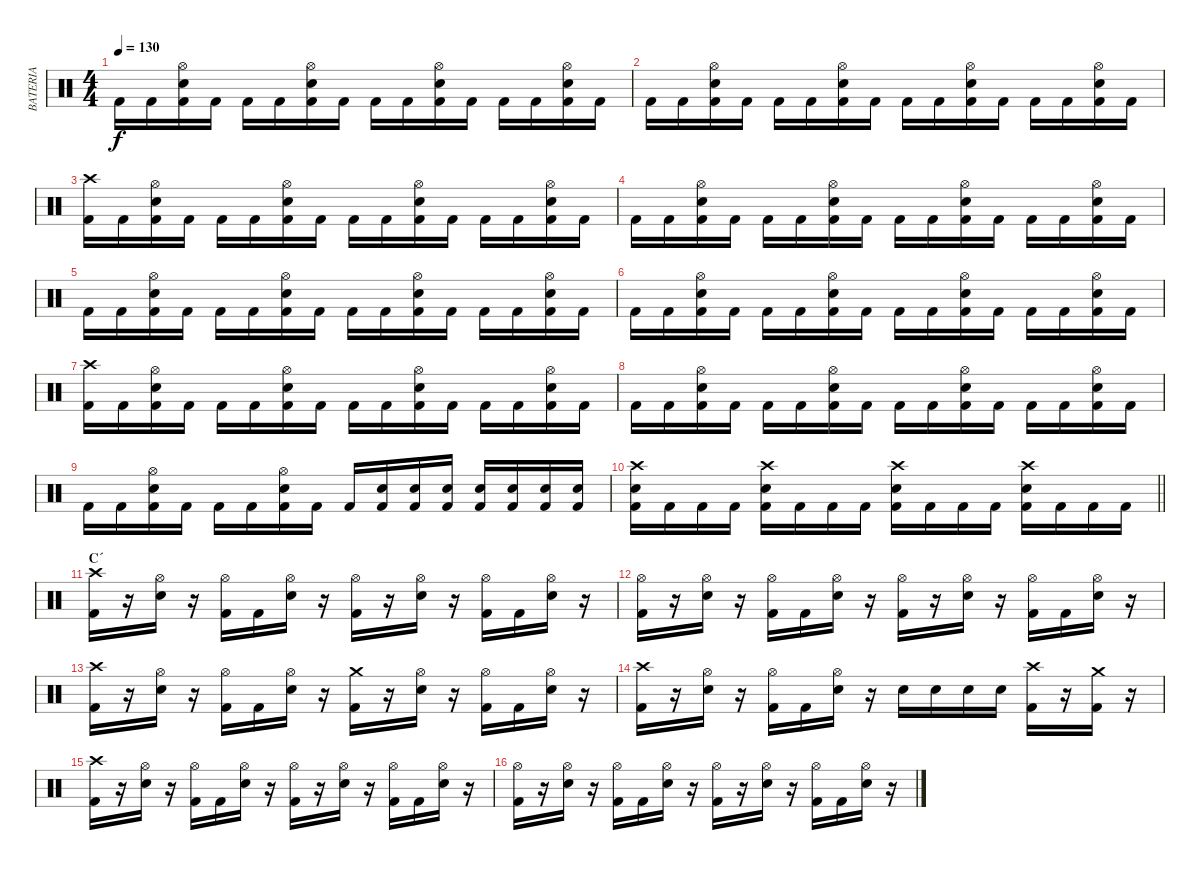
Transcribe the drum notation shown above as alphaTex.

\track ("BATERIA" "BATERIA") {instrument percussion}
\staff {score}
\articulation defaults
\ts (4 4)
\tempo 130
\clef neutral
\ks c "Kick (hit) 2".16{dy f} "Kick (hit) 2".16
("Kick (hit) 2" "Electric Snare (hit)" "Hi-Hat (open)").16 "Kick (hit) 2".16 "Kick (hit) 2".16 "Kick (hit) 2".16 ("Kick (hit) 2" "Electric Snare (hit)" "Hi-Hat (open)").16 "Kick (hit) 2".16 "Kick (hit) 2".16 "Kick (hit) 2".16 ("Kick (hit) 2" "Electric Snare (hit)" "Hi-Hat (open)").16 "Kick (hit) 2".16 "Kick (hit) 2".16 "Kick (hit) 2".16 ("Kick (hit) 2" "Electric Snare (hit)" "Hi-Hat (open)").16 "Kick (hit) 2".16 |
"Kick (hit) 2".16 "Kick (hit) 2".16 ("Kick (hit) 2" "Electric Snare (hit)" "Hi-Hat (open)").16 "Kick (hit) 2".16 "Kick (hit) 2".16 "Kick (hit) 2".16 ("Kick (hit) 2" "Electric Snare (hit)" "Hi-Hat (open)").16 "Kick (hit) 2".16 "Kick (hit) 2".16 "Kick (hit) 2".16 ("Kick (hit) 2" "Electric Snare (hit)" "Hi-Hat (open)").16 "Kick (hit) 2".16 "Kick (hit) 2".16 "Kick (hit) 2".16 ("Kick (hit) 2" "Electric Snare (hit)" "Hi-Hat (open)").16 "Kick (hit) 2".16 |
("Kick (hit) 2" "Crash high (hit)").16 "Kick (hit) 2".16 ("Kick (hit) 2" "Electric Snare (hit)" "Hi-Hat (open)").16 "Kick (hit) 2".16 "Kick (hit) 2".16 "Kick (hit) 2".16 ("Kick (hit) 2" "Electric Snare (hit)" "Hi-Hat (open)").16 "Kick (hit) 2".16 "Kick (hit) 2".16 "Kick (hit) 2".16 ("Kick (hit) 2" "Electric Snare (hit)" "Hi-Hat (open)").16 "Kick (hit) 2".16 "Kick (hit) 2".16 "Kick (hit) 2".16 ("Kick (hit) 2" "Electric Snare (hit)" "Hi-Hat (open)").16 "Kick (hit) 2".16 |
"Kick (hit) 2".16 "Kick (hit) 2".16 ("Kick (hit) 2" "Electric Snare (hit)" "Hi-Hat (open)").16 "Kick (hit) 2".16 "Kick (hit) 2".16 "Kick (hit) 2".16 ("Kick (hit) 2" "Electric Snare (hit)" "Hi-Hat (open)").16 "Kick (hit) 2".16 "Kick (hit) 2".16 "Kick (hit) 2".16 ("Kick (hit) 2" "Electric Snare (hit)" "Hi-Hat (open)").16 "Kick (hit) 2".16 "Kick (hit) 2".16 "Kick (hit) 2".16 ("Kick (hit) 2" "Electric Snare (hit)" "Hi-Hat (open)").16 "Kick (hit) 2".16 |
"Kick (hit) 2".16 "Kick (hit) 2".16 ("Kick (hit) 2" "Electric Snare (hit)" "Hi-Hat (open)").16 "Kick (hit) 2".16 "Kick (hit) 2".16 "Kick (hit) 2".16 ("Kick (hit) 2" "Electric Snare (hit)" "Hi-Hat (open)").16 "Kick (hit) 2".16 "Kick (hit) 2".16 "Kick (hit) 2".16 ("Kick (hit) 2" "Electric Snare (hit)" "Hi-Hat (open)").16 "Kick (hit) 2".16 "Kick (hit) 2".16 "Kick (hit) 2".16 ("Kick (hit) 2" "Electric Snare (hit)" "Hi-Hat (open)").16 "Kick (hit) 2".16 |
"Kick (hit) 2".16 "Kick (hit) 2".16 ("Kick (hit) 2" "Electric Snare (hit)" "Hi-Hat (open)").16 "Kick (hit) 2".16 "Kick (hit) 2".16 "Kick (hit) 2".16 ("Kick (hit) 2" "Electric Snare (hit)" "Hi-Hat (open)").16 "Kick (hit) 2".16 "Kick (hit) 2".16 "Kick (hit) 2".16 ("Kick (hit) 2" "Electric Snare (hit)" "Hi-Hat (open)").16 "Kick (hit) 2".16 "Kick (hit) 2".16 "Kick (hit) 2".16 ("Kick (hit) 2" "Electric Snare (hit)" "Hi-Hat (open)").16 "Kick (hit) 2".16 |
("Kick (hit) 2" "Crash high (hit)").16 "Kick (hit) 2".16 ("Kick (hit) 2" "Electric Snare (hit)" "Hi-Hat (open)").16 "Kick (hit) 2".16 "Kick (hit) 2".16 "Kick (hit) 2".16 ("Kick (hit) 2" "Electric Snare (hit)" "Hi-Hat (open)").16 "Kick (hit) 2".16 "Kick (hit) 2".16 "Kick (hit) 2".16 ("Kick (hit) 2" "Electric Snare (hit)" "Hi-Hat (open)").16 "Kick (hit) 2".16 "Kick (hit) 2".16 "Kick (hit) 2".16 ("Kick (hit) 2" "Electric Snare (hit)" "Hi-Hat (open)").16 "Kick (hit) 2".16 |
"Kick (hit) 2".16 "Kick (hit) 2".16 ("Kick (hit) 2" "Electric Snare (hit)" "Hi-Hat (open)").16 "Kick (hit) 2".16 "Kick (hit) 2".16 "Kick (hit) 2".16 ("Kick (hit) 2" "Electric Snare (hit)" "Hi-Hat (open)").16 "Kick (hit) 2".16 "Kick (hit) 2".16 "Kick (hit) 2".16 ("Kick (hit) 2" "Electric Snare (hit)" "Hi-Hat (open)").16 "Kick (hit) 2".16 "Kick (hit) 2".16 "Kick (hit) 2".16 ("Kick (hit) 2" "Electric Snare (hit)" "Hi-Hat (open)").16 "Kick (hit) 2".16 |
"Kick (hit) 2".16 "Kick (hit) 2".16 ("Kick (hit) 2" "Electric Snare (hit)" "Hi-Hat (open)").16 "Kick (hit) 2".16 "Kick (hit) 2".16 "Kick (hit) 2".16 ("Kick (hit) 2" "Electric Snare (hit)" "Hi-Hat (open)").16 "Kick (hit) 2".16 "Kick (hit) 2".16 ("Kick (hit) 2" "Electric Snare (hit)").16 ("Kick (hit) 2" "Electric Snare (hit)").16 ("Kick (hit) 2" "Electric Snare (hit)").16 ("Kick (hit) 2" "Electric Snare (hit)").16 ("Kick (hit) 2" "Electric Snare (hit)").16 ("Kick (hit) 2" "Electric Snare (hit)").16 ("Kick (hit) 2" "Electric Snare (hit)").16 |
\barLineRight lightlight
("Kick (hit) 2" "Electric Snare (hit)" "Crash high (hit)").16 "Kick (hit) 2".16 "Kick (hit) 2".16 "Kick (hit) 2".16 ("Kick (hit) 2" "Electric Snare (hit)" "Crash high (hit)").16 "Kick (hit) 2".16 "Kick (hit) 2".16 "Kick (hit) 2".16 ("Kick (hit) 2" "Electric Snare (hit)" "Crash high (hit)").16 "Kick (hit) 2".16 "Kick (hit) 2".16 "Kick (hit) 2".16 ("Kick (hit) 2" "Electric Snare (hit)" "Crash high (hit)").16 "Kick (hit) 2".16 "Kick (hit) 2".16 "Kick (hit) 2".16 |
\section ("" "C´")
("Kick (hit) 2" "Crash high (hit)").16 r.16 ("Electric Snare (hit)" "Hi-Hat (open)").16 r.16 ("Kick (hit) 2" "Hi-Hat (open)").16 "Kick (hit) 2".16 ("Electric Snare (hit)" "Hi-Hat (open)").16 r.16 ("Kick (hit) 2" "Hi-Hat (open)").16 r.16 ("Electric Snare (hit)" "Hi-Hat (open)").16 r.16 ("Kick (hit) 2" "Hi-Hat (open)").16 "Kick (hit) 2".16 ("Electric Snare (hit)" "Hi-Hat (open)").16 r.16 |
("Kick (hit) 2" "Hi-Hat (open)").16 r.16 ("Electric Snare (hit)" "Hi-Hat (open)").16 r.16 ("Kick (hit) 2" "Hi-Hat (open)").16 "Kick (hit) 2".16 ("Electric Snare (hit)" "Hi-Hat (open)").16 r.16 ("Kick (hit) 2" "Hi-Hat (open)").16 r.16 ("Electric Snare (hit)" "Hi-Hat (open)").16 r.16 ("Kick (hit) 2" "Hi-Hat (open)").16 "Kick (hit) 2".16 ("Electric Snare (hit)" "Hi-Hat (open)").16 r.16 |
("Kick (hit) 2" "Crash high (hit)").16 r.16 ("Electric Snare (hit)" "Hi-Hat (open)").16 r.16 ("Kick (hit) 2" "Hi-Hat (open)").16 "Kick (hit) 2".16 ("Electric Snare (hit)" "Hi-Hat (open)").16 r.16 ("Kick (hit) 2" "Crash medium (hit)").16 r.16 ("Electric Snare (hit)" "Hi-Hat (open)").16 r.16 ("Kick (hit) 2" "Hi-Hat (open)").16 "Kick (hit) 2".16 ("Electric Snare (hit)" "Hi-Hat (open)").16 r.16 |
("Kick (hit) 2" "Crash high (hit)").16 r.16 ("Electric Snare (hit)" "Hi-Hat (open)").16 r.16 ("Kick (hit) 2" "Hi-Hat (open)").16 "Kick (hit) 2".16 ("Electric Snare (hit)" "Hi-Hat (open)").16 r.16 "Electric Snare (hit)".16 "Electric Snare (hit)".16 "Electric Snare (hit)".16 "Electric Snare (hit)".16 ("Kick (hit) 2" "Crash high (hit)").16 r.16 ("Kick (hit) 2" "Crash medium (hit)").16 r.16 |
("Kick (hit) 2" "Crash high (hit)").16 r.16 ("Electric Snare (hit)" "Hi-Hat (open)").16 r.16 ("Kick (hit) 2" "Hi-Hat (open)").16 "Kick (hit) 2".16 ("Electric Snare (hit)" "Hi-Hat (open)").16 r.16 ("Kick (hit) 2" "Hi-Hat (open)").16 r.16 ("Electric Snare (hit)" "Hi-Hat (open)").16 r.16 ("Kick (hit) 2" "Hi-Hat (open)").16 "Kick (hit) 2".16 ("Electric Snare (hit)" "Hi-Hat (open)").16 r.16 |
("Kick (hit) 2" "Hi-Hat (open)").16 r.16 ("Electric Snare (hit)" "Hi-Hat (open)").16 r.16 ("Kick (hit) 2" "Hi-Hat (open)").16 "Kick (hit) 2".16 ("Electric Snare (hit)" "Hi-Hat (open)").16 r.16 ("Kick (hit) 2" "Hi-Hat (open)").16 r.16 ("Electric Snare (hit)" "Hi-Hat (open)").16 r.16 ("Kick (hit) 2" "Hi-Hat (open)").16 "Kick (hit) 2".16 ("Electric Snare (hit)" "Hi-Hat (open)").16 r.16
